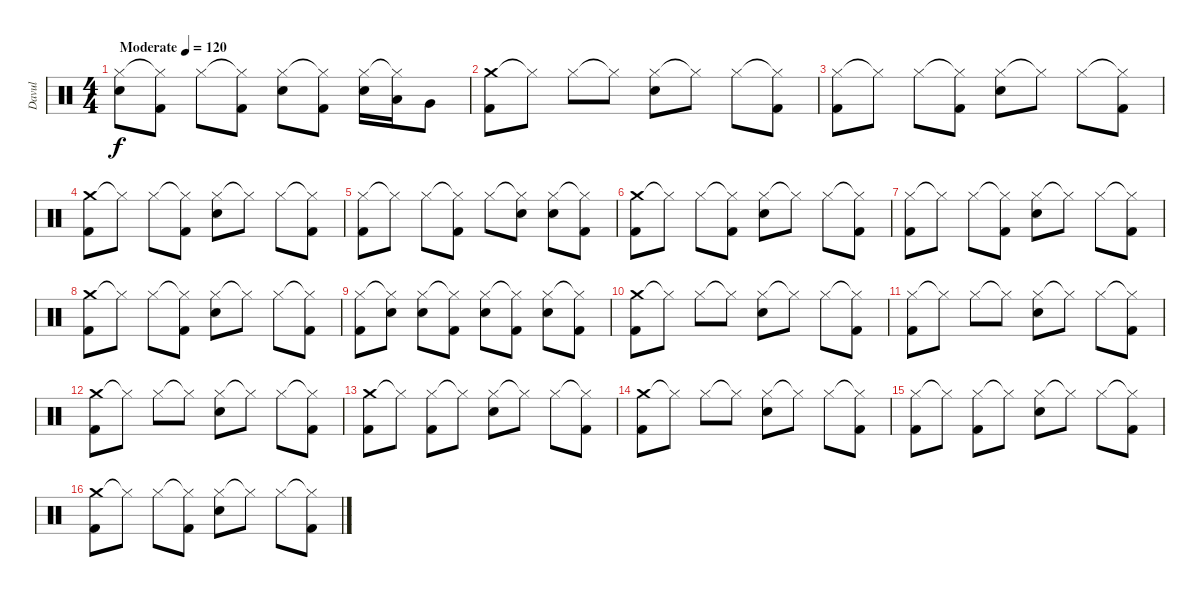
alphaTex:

\track ("Davul" "Davul") {instrument percussion}
\staff {score}
\articulation defaults
\ts (4 4)
\tempo (120 "Moderate")
\clef neutral
\ks c
("Hi-Hat (closed)" "Snare (hit) 2").8{dy f} ("Hi-Hat (closed)"{t} "Kick (hit) 2").8 "Hi-Hat (closed)".8 ("Hi-Hat (closed)"{t} "Kick (hit) 2").8 ("Hi-Hat (closed)" "Snare (hit) 2").8 ("Hi-Hat (closed)"{t} "Kick (hit) 2").8 ("Hi-Hat (closed)" "Snare (hit) 2").16 ("Hi-Hat (closed)"{t} "Low Tom (hit)").16 "Very Low Tom (hit)".8 |
("Crash medium (hit)" "Kick (hit) 2").8 "Hi-Hat (closed)"{t}.8 "Hi-Hat (closed)".8 "Hi-Hat (closed)"{t}.8 ("Hi-Hat (closed)" "Snare (hit) 2").8 "Hi-Hat (closed)"{t}.8 "Hi-Hat (closed)".8 ("Hi-Hat (closed)"{t} "Kick (hit) 2").8 |
("Hi-Hat (closed)" "Kick (hit) 2").8 "Hi-Hat (closed)"{t}.8 "Hi-Hat (closed)".8 ("Hi-Hat (closed)"{t} "Kick (hit) 2").8 ("Hi-Hat (closed)" "Snare (hit) 2").8 "Hi-Hat (closed)"{t}.8 "Hi-Hat (closed)".8 ("Hi-Hat (closed)"{t} "Kick (hit) 2").8 |
("Crash medium (hit)" "Kick (hit) 2").8 "Hi-Hat (closed)"{t}.8 "Hi-Hat (closed)".8 ("Hi-Hat (closed)"{t} "Kick (hit) 2").8 ("Hi-Hat (closed)" "Snare (hit) 2").8 "Hi-Hat (closed)"{t}.8 "Hi-Hat (closed)".8 ("Hi-Hat (closed)"{t} "Kick (hit) 2").8 |
("Hi-Hat (closed)" "Kick (hit) 2").8 "Hi-Hat (closed)"{t}.8 "Hi-Hat (closed)".8 ("Hi-Hat (closed)"{t} "Kick (hit) 2").8 "Hi-Hat (closed)".8 ("Hi-Hat (closed)"{t} "Snare (hit) 2").8 ("Hi-Hat (closed)" "Snare (hit) 2").8 ("Hi-Hat (closed)"{t} "Kick (hit) 2").8 |
("Crash medium (hit)" "Kick (hit) 2").8 "Hi-Hat (closed)"{t}.8 "Hi-Hat (closed)".8 ("Hi-Hat (closed)"{t} "Kick (hit) 2").8 ("Hi-Hat (closed)" "Snare (hit) 2").8 "Hi-Hat (closed)"{t}.8 "Hi-Hat (closed)".8 ("Hi-Hat (closed)"{t} "Kick (hit) 2").8 |
("Hi-Hat (closed)" "Kick (hit) 2").8 "Hi-Hat (closed)"{t}.8 "Hi-Hat (closed)".8 ("Hi-Hat (closed)"{t} "Kick (hit) 2").8 ("Hi-Hat (closed)" "Snare (hit) 2").8 "Hi-Hat (closed)"{t}.8 "Hi-Hat (closed)".8 ("Hi-Hat (closed)"{t} "Kick (hit) 2").8 |
("Crash medium (hit)" "Kick (hit) 2").8 "Hi-Hat (closed)"{t}.8 "Hi-Hat (closed)".8 ("Hi-Hat (closed)"{t} "Kick (hit) 2").8 ("Hi-Hat (closed)" "Snare (hit) 2").8 "Hi-Hat (closed)"{t}.8 "Hi-Hat (closed)".8 ("Hi-Hat (closed)"{t} "Kick (hit) 2").8 |
("Hi-Hat (closed)" "Kick (hit) 2").8 ("Hi-Hat (closed)"{t} "Snare (hit) 2").8 ("Hi-Hat (closed)" "Snare (hit) 2").8 ("Hi-Hat (closed)"{t} "Kick (hit) 2").8 ("Hi-Hat (closed)" "Snare (hit) 2").8 ("Hi-Hat (closed)"{t} "Kick (hit) 2").8 ("Hi-Hat (closed)" "Snare (hit) 2").8 ("Hi-Hat (closed)"{t} "Kick (hit) 2").8 |
("Crash medium (hit)" "Kick (hit) 2").8 "Hi-Hat (closed)"{t}.8 "Hi-Hat (closed)".8 "Hi-Hat (closed)"{t}.8 ("Hi-Hat (closed)" "Snare (hit) 2").8 "Hi-Hat (closed)"{t}.8 "Hi-Hat (closed)".8 ("Hi-Hat (closed)"{t} "Kick (hit) 2").8 |
("Hi-Hat (closed)" "Kick (hit) 2").8 "Hi-Hat (closed)"{t}.8 "Hi-Hat (closed)".8 "Hi-Hat (closed)"{t}.8 ("Hi-Hat (closed)" "Snare (hit) 2").8 "Hi-Hat (closed)"{t}.8 "Hi-Hat (closed)".8 ("Hi-Hat (closed)"{t} "Kick (hit) 2").8 |
("Crash medium (hit)" "Kick (hit) 2").8 "Hi-Hat (closed)"{t}.8 "Hi-Hat (closed)".8 "Hi-Hat (closed)"{t}.8 ("Hi-Hat (closed)" "Snare (hit) 2").8 "Hi-Hat (closed)"{t}.8 "Hi-Hat (closed)".8 ("Hi-Hat (closed)"{t} "Kick (hit) 2").8 |
("Crash medium (hit)" "Kick (hit) 2").8 "Hi-Hat (closed)"{t}.8 ("Hi-Hat (closed)" "Kick (hit) 2").8 "Hi-Hat (closed)"{t}.8 ("Hi-Hat (closed)" "Snare (hit) 2").8 "Hi-Hat (closed)"{t}.8 "Hi-Hat (closed)".8 ("Hi-Hat (closed)"{t} "Kick (hit) 2").8 |
("Crash medium (hit)" "Kick (hit) 2").8 "Hi-Hat (closed)"{t}.8 "Hi-Hat (closed)".8 "Hi-Hat (closed)"{t}.8 ("Hi-Hat (closed)" "Snare (hit) 2").8 "Hi-Hat (closed)"{t}.8 "Hi-Hat (closed)".8 ("Hi-Hat (closed)"{t} "Kick (hit) 2").8 |
("Hi-Hat (closed)" "Kick (hit) 2").8 "Hi-Hat (closed)"{t}.8 ("Hi-Hat (closed)" "Kick (hit) 2").8 "Hi-Hat (closed)"{t}.8 ("Hi-Hat (closed)" "Snare (hit) 2").8 "Hi-Hat (closed)"{t}.8 "Hi-Hat (closed)".8 ("Hi-Hat (closed)"{t} "Kick (hit) 2").8 |
("Crash medium (hit)" "Kick (hit) 2").8 "Hi-Hat (closed)"{t}.8 "Hi-Hat (closed)".8 ("Hi-Hat (closed)"{t} "Kick (hit) 2").8 ("Hi-Hat (closed)" "Snare (hit) 2").8 "Hi-Hat (closed)"{t}.8 "Hi-Hat (closed)".8 ("Hi-Hat (closed)"{t} "Kick (hit) 2").8
